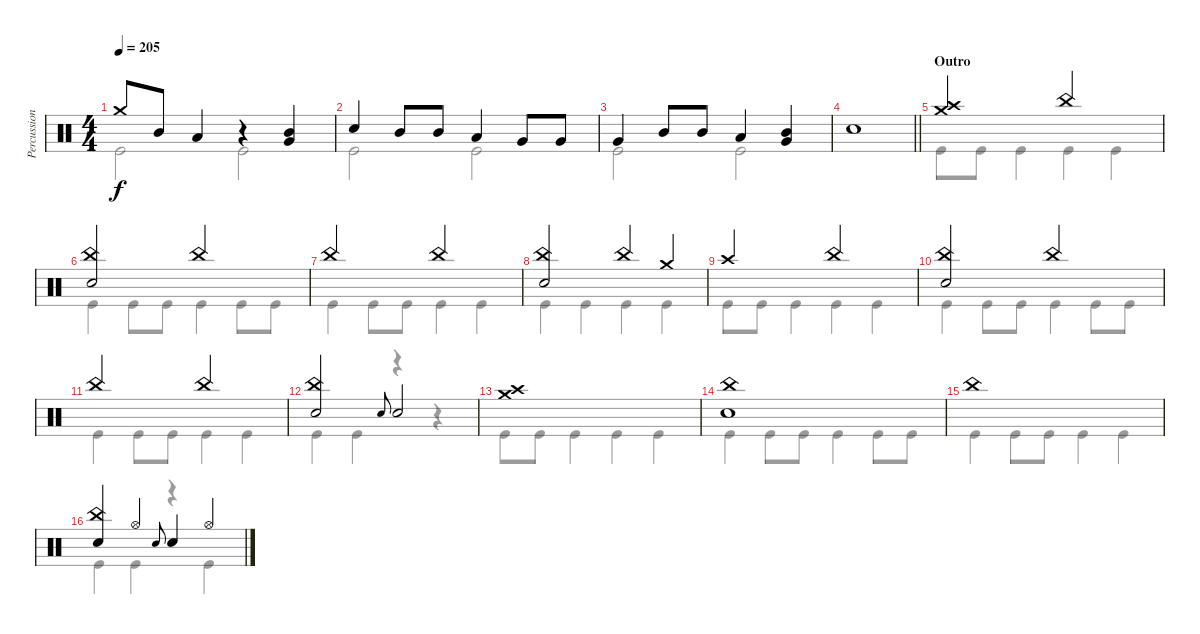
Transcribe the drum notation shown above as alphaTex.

\track ("Percussion" "Percussion") {instrument percussion}
\staff {score}
\articulation defaults
\voice
\ts (4 4)
\tempo 205
\clef neutral
\ks c "Crash medium (hit)".8{dy f} "Mid Tom (hit)".8 "Low Tom (hit)".4
r.4 ("Mid Tom (hit)" "Very Low Tom (hit)").4 |
"Electric Snare (hit)".4 "Mid Tom (hit)".8 "Mid Tom (hit)".8 "Low Tom (hit)".4 "Very Low Tom (hit)".8 "Very Low Tom (hit)".8 |
"Very Low Tom (hit)".4 "Mid Tom (hit)".8 "Mid Tom (hit)".8 "Low Tom (hit)".4 ("Mid Tom (hit)" "Very Low Tom (hit)").4 |
\barLineRight lightlight "Electric Snare (hit)".1
|
\section ("" "Outro")
("Crash medium (hit)" "Crash high (hit)").2 "China (hit)".2 |
("China (hit)" "Electric Snare (hit)").2 "China (hit)".2 |
"China (hit)".2 "China (hit)".2 |
("China (hit)" "Electric Snare (hit)").2 "China (hit)".4 "Crash medium (hit)".4 |
"Crash high (hit)".2 "China (hit)".2 |
("China (hit)" "Electric Snare (hit)").2 "China (hit)".2 |
"China (hit)".2 "China (hit)".2 |
("China (hit)" "Electric Snare (hit)").2 "Electric Snare (hit)".8{gr onbeat} "Electric Snare (hit)".2 |
("Crash medium (hit)" "Crash high (hit)").1 |
("China (hit)" "Electric Snare (hit)").1 |
"China (hit)".1 |
("China (hit)" "Electric Snare (hit)").4 "Hi-Hat (open)".4 "Electric Snare (hit)".8{gr onbeat} "Electric Snare (hit)".4 "Hi-Hat (open)".4
\voice
\clef neutral
\ottava regular
\simile none
\ks c "Kick (hit)".2{dy f} "Kick (hit)".2
|
"Kick (hit)".2 "Kick (hit)".2 |
"Kick (hit)".2 "Kick (hit)".2 |
\barLineRight lightlight
|
"Kick (hit)".8 "Kick (hit)".8 "Kick (hit)".4 "Kick (hit)".4 "Kick (hit)".4 |
"Kick (hit)".4 "Kick (hit)".8 "Kick (hit)".8 "Kick (hit)".4 "Kick (hit)".8 "Kick (hit)".8 |
"Kick (hit)".4 "Kick (hit)".8 "Kick (hit)".8 "Kick (hit)".4 "Kick (hit)".4 |
"Kick (hit)".4 "Kick (hit)".4 "Kick (hit)".4 "Kick (hit)".4 |
"Kick (hit)".8 "Kick (hit)".8 "Kick (hit)".4 "Kick (hit)".4 "Kick (hit)".4 |
"Kick (hit)".4 "Kick (hit)".8 "Kick (hit)".8 "Kick (hit)".4 "Kick (hit)".8 "Kick (hit)".8 |
"Kick (hit)".4 "Kick (hit)".8 "Kick (hit)".8 "Kick (hit)".4 "Kick (hit)".4 |
"Kick (hit)".4 "Kick (hit)".4 r.4 r.4 |
"Kick (hit)".8 "Kick (hit)".8 "Kick (hit)".4 "Kick (hit)".4 "Kick (hit)".4 |
"Kick (hit)".4 "Kick (hit)".8 "Kick (hit)".8 "Kick (hit)".4 "Kick (hit)".8 "Kick (hit)".8 |
"Kick (hit)".4 "Kick (hit)".8 "Kick (hit)".8 "Kick (hit)".4 "Kick (hit)".4 |
"Kick (hit)".4 "Kick (hit)".4 r.4 "Kick (hit)".4
